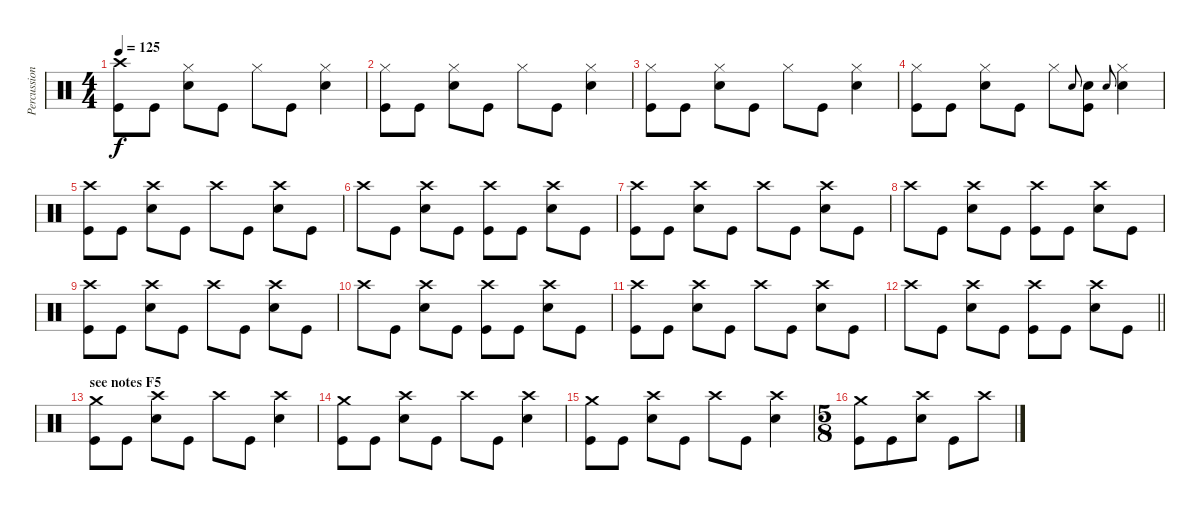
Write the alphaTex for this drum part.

\track ("Percussion" "Percussion") {instrument percussion}
\staff {score}
\articulation defaults
\ts (4 4)
\tempo 125
\clef neutral
\ks c
("Crash high (hit)" "Kick (hit)").8{dy f} "Kick (hit)".8 ("Hi-Hat (closed)" "Snare (hit) 2").8 "Kick (hit)".8 "Hi-Hat (closed)".8 "Kick (hit)".8 ("Snare (hit) 2" "Hi-Hat (closed)").4 |
("Hi-Hat (closed)" "Kick (hit)").8 "Kick (hit)".8 ("Hi-Hat (closed)" "Snare (hit) 2").8 "Kick (hit)".8 "Hi-Hat (closed)".8 "Kick (hit)".8 ("Snare (hit) 2" "Hi-Hat (closed)").4 |
("Hi-Hat (closed)" "Kick (hit)").8 "Kick (hit)".8 ("Hi-Hat (closed)" "Snare (hit) 2").8 "Kick (hit)".8 "Hi-Hat (closed)".8 "Kick (hit)".8 ("Snare (hit) 2" "Hi-Hat (closed)").4 |
("Hi-Hat (closed)" "Kick (hit)").8 "Kick (hit)".8 ("Hi-Hat (closed)" "Snare (hit) 2").8 "Kick (hit)".8 "Hi-Hat (closed)".8 "Snare (hit) 2".8{gr onbeat} ("Kick (hit)" "Snare (hit) 2").8 "Snare (hit) 2".8{gr onbeat} ("Snare (hit) 2" "Hi-Hat (closed)").4 |
("Crash high (hit)" "Kick (hit)").8 "Kick (hit)".8 ("Crash high (hit)" "Snare (hit) 2").8 "Kick (hit)".8 "Crash high (hit)".8 "Kick (hit)".8 ("Snare (hit) 2" "Crash high (hit)").8 "Kick (hit)".8 |
"Crash high (hit)".8 "Kick (hit)".8 ("Crash high (hit)" "Snare (hit) 2").8 "Kick (hit)".8 ("Crash high (hit)" "Kick (hit)").8 "Kick (hit)".8 ("Snare (hit) 2" "Crash high (hit)").8 "Kick (hit)".8 |
("Crash high (hit)" "Kick (hit)").8 "Kick (hit)".8 ("Crash high (hit)" "Snare (hit) 2").8 "Kick (hit)".8 "Crash high (hit)".8 "Kick (hit)".8 ("Snare (hit) 2" "Crash high (hit)").8 "Kick (hit)".8 |
"Crash high (hit)".8 "Kick (hit)".8 ("Crash high (hit)" "Snare (hit) 2").8 "Kick (hit)".8 ("Crash high (hit)" "Kick (hit)").8 "Kick (hit)".8 ("Snare (hit) 2" "Crash high (hit)").8 "Kick (hit)".8 |
("Crash high (hit)" "Kick (hit)").8 "Kick (hit)".8 ("Crash high (hit)" "Snare (hit) 2").8 "Kick (hit)".8 "Crash high (hit)".8 "Kick (hit)".8 ("Snare (hit) 2" "Crash high (hit)").8 "Kick (hit)".8 |
"Crash high (hit)".8 "Kick (hit)".8 ("Crash high (hit)" "Snare (hit) 2").8 "Kick (hit)".8 ("Crash high (hit)" "Kick (hit)").8 "Kick (hit)".8 ("Snare (hit) 2" "Crash high (hit)").8 "Kick (hit)".8 |
("Crash high (hit)" "Kick (hit)").8 "Kick (hit)".8 ("Crash high (hit)" "Snare (hit) 2").8 "Kick (hit)".8 "Crash high (hit)".8 "Kick (hit)".8 ("Snare (hit) 2" "Crash high (hit)").8 "Kick (hit)".8 |
\barLineRight lightlight "Crash high (hit)".8 "Kick (hit)".8
("Crash high (hit)" "Snare (hit) 2").8 "Kick (hit)".8 ("Crash high (hit)" "Kick (hit)").8 "Kick (hit)".8 ("Snare (hit) 2" "Crash high (hit)").8 "Kick (hit)".8 |
\section ("" "see notes F5")
("Crash medium (hit)" "Kick (hit)").8 "Kick (hit)".8 ("Crash high (hit)" "Snare (hit) 2").8 "Kick (hit)".8 "Crash high (hit)".8 "Kick (hit)".8 ("Snare (hit) 2" "Crash high (hit)").4 |
("Crash medium (hit)" "Kick (hit)").8 "Kick (hit)".8 ("Crash high (hit)" "Snare (hit) 2").8 "Kick (hit)".8 "Crash high (hit)".8 "Kick (hit)".8 ("Snare (hit) 2" "Crash high (hit)").4 |
("Crash medium (hit)" "Kick (hit)").8 "Kick (hit)".8 ("Crash high (hit)" "Snare (hit) 2").8 "Kick (hit)".8 "Crash high (hit)".8 "Kick (hit)".8 ("Snare (hit) 2" "Crash high (hit)").4 |
\ts (5 8)
("Crash medium (hit)" "Kick (hit)").8 "Kick (hit)".8 ("Crash high (hit)" "Snare (hit) 2").8 "Kick (hit)".8 "Crash high (hit)".8
